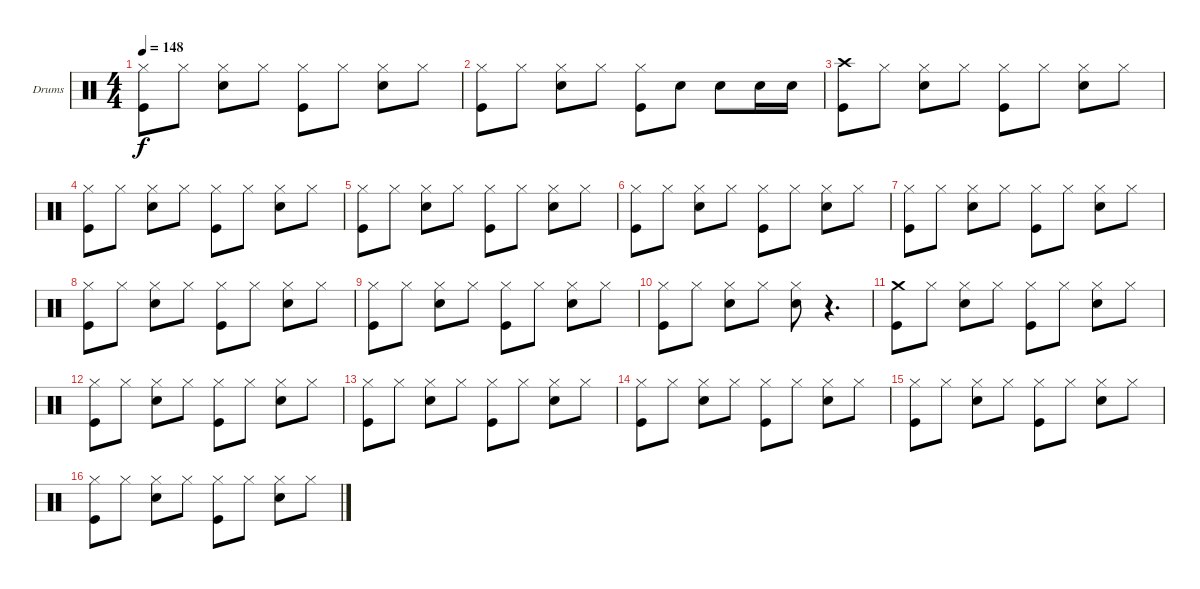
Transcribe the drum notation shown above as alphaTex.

\defaultSystemsLayout 4
\bracketExtendMode groupsimilarinstruments
\firstSystemTrackNameOrientation horizontal
\otherSystemsTrackNameOrientation horizontal
\track ("Нюта" "Drums") {instrument percussion}
\staff {score}
\articulation defaults
\ts (4 4)
\tempo 148
\clef neutral
\scale
0.333333
\ks c
("Hi-Hat (closed)" "Kick (hit)").8{dy f} "Hi-Hat (closed)".8 ("Hi-Hat (closed)" "Snare (hit) 2").8 "Hi-Hat (closed)".8 ("Hi-Hat (closed)" "Kick (hit)").8 "Hi-Hat (closed)".8 ("Hi-Hat (closed)" "Snare (hit) 2").8 "Hi-Hat (closed)".8 |
\scale
0.333333 ("Hi-Hat (closed)" "Kick (hit)").8 "Hi-Hat (closed)".8 ("Hi-Hat (closed)" "Snare (hit) 2").8 "Hi-Hat (closed)".8 ("Hi-Hat (closed)" "Kick (hit)").8 "Snare (hit) 2".8 "Snare (hit) 2".8 "Snare (hit) 2".16 "Snare (hit) 2".16 |
\scale
0.333333 ("Crash high (hit)" "Kick (hit)").8 "Hi-Hat (closed)".8 ("Hi-Hat (closed)" "Snare (hit) 2").8 "Hi-Hat (closed)".8 ("Hi-Hat (closed)" "Kick (hit)").8 "Hi-Hat (closed)".8 ("Hi-Hat (closed)" "Snare (hit) 2").8 "Hi-Hat (closed)".8 |
\scale
0.333333 ("Hi-Hat (closed)" "Kick (hit)").8 "Hi-Hat (closed)".8 ("Hi-Hat (closed)" "Snare (hit) 2").8 "Hi-Hat (closed)".8 ("Hi-Hat (closed)" "Kick (hit)").8 "Hi-Hat (closed)".8 ("Hi-Hat (closed)" "Snare (hit) 2").8 "Hi-Hat (closed)".8 |
\scale
0.333333 ("Hi-Hat (closed)" "Kick (hit)").8 "Hi-Hat (closed)".8 ("Hi-Hat (closed)" "Snare (hit) 2").8 "Hi-Hat (closed)".8 ("Hi-Hat (closed)" "Kick (hit)").8 "Hi-Hat (closed)".8 ("Hi-Hat (closed)" "Snare (hit) 2").8 "Hi-Hat (closed)".8 |
\scale
0.333333 ("Hi-Hat (closed)" "Kick (hit)").8 "Hi-Hat (closed)".8 ("Hi-Hat (closed)" "Snare (hit) 2").8 "Hi-Hat (closed)".8 ("Hi-Hat (closed)" "Kick (hit)").8 "Hi-Hat (closed)".8 ("Hi-Hat (closed)" "Snare (hit) 2").8 "Hi-Hat (closed)".8 |
\scale
0.333333 ("Hi-Hat (closed)" "Kick (hit)").8 "Hi-Hat (closed)".8 ("Hi-Hat (closed)" "Snare (hit) 2").8 "Hi-Hat (closed)".8 ("Hi-Hat (closed)" "Kick (hit)").8 "Hi-Hat (closed)".8 ("Hi-Hat (closed)" "Snare (hit) 2").8 "Hi-Hat (closed)".8 |
\scale
0.333333 ("Hi-Hat (closed)" "Kick (hit)").8 "Hi-Hat (closed)".8 ("Hi-Hat (closed)" "Snare (hit) 2").8 "Hi-Hat (closed)".8 ("Hi-Hat (closed)" "Kick (hit)").8 "Hi-Hat (closed)".8 ("Hi-Hat (closed)" "Snare (hit) 2").8 "Hi-Hat (closed)".8 |
\scale
0.333333 ("Hi-Hat (closed)" "Kick (hit)").8 "Hi-Hat (closed)".8 ("Hi-Hat (closed)" "Snare (hit) 2").8 "Hi-Hat (closed)".8 ("Hi-Hat (closed)" "Kick (hit)").8 "Hi-Hat (closed)".8 ("Hi-Hat (closed)" "Snare (hit) 2").8 "Hi-Hat (closed)".8 |
\scale
0.333333 ("Hi-Hat (closed)" "Kick (hit)").8 "Hi-Hat (closed)".8 ("Hi-Hat (closed)" "Snare (hit) 2").8 "Hi-Hat (closed)".8 ("Hi-Hat (closed)" "Snare (hit) 2").8 r.4{d} |
\scale
0.333333 ("Crash medium (hit)" "Kick (hit)").8 "Hi-Hat (closed)".8 ("Hi-Hat (closed)" "Snare (hit) 2").8 "Hi-Hat (closed)".8 ("Hi-Hat (closed)" "Kick (hit)").8 "Hi-Hat (closed)".8 ("Hi-Hat (closed)" "Snare (hit) 2").8 "Hi-Hat (closed)".8 |
\scale
0.333333 ("Hi-Hat (closed)" "Kick (hit)").8 "Hi-Hat (closed)".8 ("Hi-Hat (closed)" "Snare (hit) 2").8 "Hi-Hat (closed)".8 ("Hi-Hat (closed)" "Kick (hit)").8 "Hi-Hat (closed)".8 ("Hi-Hat (closed)" "Snare (hit) 2").8 "Hi-Hat (closed)".8 |
\scale
0.333333 ("Hi-Hat (closed)" "Kick (hit)").8 "Hi-Hat (closed)".8 ("Hi-Hat (closed)" "Snare (hit) 2").8 "Hi-Hat (closed)".8 ("Hi-Hat (closed)" "Kick (hit)").8 "Hi-Hat (closed)".8 ("Hi-Hat (closed)" "Snare (hit) 2").8 "Hi-Hat (closed)".8 |
\scale
0.333333 ("Hi-Hat (closed)" "Kick (hit)").8 "Hi-Hat (closed)".8 ("Hi-Hat (closed)" "Snare (hit) 2").8 "Hi-Hat (closed)".8 ("Hi-Hat (closed)" "Kick (hit)").8 "Hi-Hat (closed)".8 ("Hi-Hat (closed)" "Snare (hit) 2").8 "Hi-Hat (closed)".8 |
\scale
0.333333 ("Hi-Hat (closed)" "Kick (hit)").8 "Hi-Hat (closed)".8 ("Hi-Hat (closed)" "Snare (hit) 2").8 "Hi-Hat (closed)".8 ("Hi-Hat (closed)" "Kick (hit)").8 "Hi-Hat (closed)".8 ("Hi-Hat (closed)" "Snare (hit) 2").8 "Hi-Hat (closed)".8 |
\scale
0.333333 ("Hi-Hat (closed)" "Kick (hit)").8 "Hi-Hat (closed)".8 ("Hi-Hat (closed)" "Snare (hit) 2").8 "Hi-Hat (closed)".8 ("Hi-Hat (closed)" "Kick (hit)").8 "Hi-Hat (closed)".8 ("Hi-Hat (closed)" "Snare (hit) 2").8 "Hi-Hat (closed)".8
